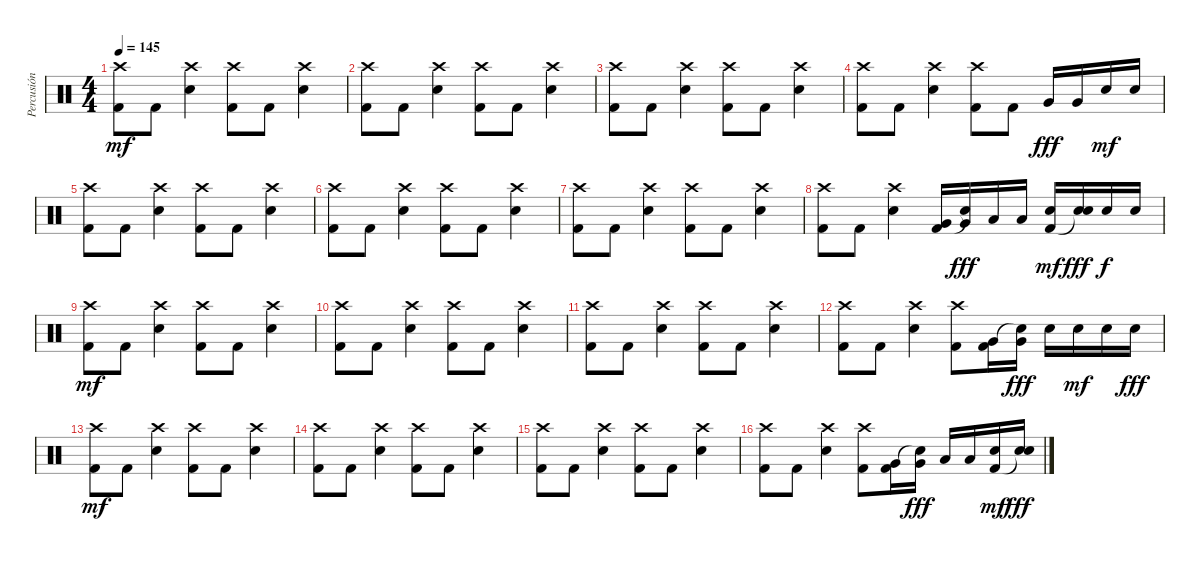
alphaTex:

\track ("Percusión" "Percusión") {instrument percussion}
\staff {score}
\articulation defaults
\ts (4 4)
\tempo 145
\clef neutral
\ks c
("Crash high (hit)" "Kick (hit) 2").8{dy mf} "Kick (hit) 2".8 ("Crash high (hit)" "Snare (hit) 2").4 ("Crash high (hit)" "Kick (hit) 2").8 "Kick (hit) 2".8 ("Crash high (hit)" "Snare (hit) 2").4 |
("Crash high (hit)" "Kick (hit) 2").8 "Kick (hit) 2".8 ("Crash high (hit)" "Snare (hit) 2").4 ("Crash high (hit)" "Kick (hit) 2").8 "Kick (hit) 2".8 ("Crash high (hit)" "Snare (hit) 2").4 |
("Crash high (hit)" "Kick (hit) 2").8 "Kick (hit) 2".8 ("Crash high (hit)" "Snare (hit) 2").4 ("Crash high (hit)" "Kick (hit) 2").8 "Kick (hit) 2".8 ("Crash high (hit)" "Snare (hit) 2").4 |
("Crash high (hit)" "Kick (hit) 2").8 "Kick (hit) 2".8 ("Crash high (hit)" "Snare (hit) 2").4 ("Crash high (hit)" "Kick (hit) 2").8 "Kick (hit) 2".8 "Very Low Tom (hit)".16{dy fff} "Very Low Tom (hit)".16 "Snare (hit) 2".16{dy mf} "Snare (hit) 2".16 |
("Crash high (hit)" "Kick (hit) 2").8 "Kick (hit) 2".8 ("Crash high (hit)" "Snare (hit) 2").4 ("Crash high (hit)" "Kick (hit) 2").8 "Kick (hit) 2".8 ("Crash high (hit)" "Snare (hit) 2").4 |
("Crash high (hit)" "Kick (hit) 2").8 "Kick (hit) 2".8 ("Crash high (hit)" "Snare (hit) 2").4 ("Crash high (hit)" "Kick (hit) 2").8 "Kick (hit) 2".8 ("Crash high (hit)" "Snare (hit) 2").4 |
("Crash high (hit)" "Kick (hit) 2").8 "Kick (hit) 2".8 ("Crash high (hit)" "Snare (hit) 2").4 ("Crash high (hit)" "Kick (hit) 2").8 "Kick (hit) 2".8 ("Crash high (hit)" "Snare (hit) 2").4 |
("Crash high (hit)" "Kick (hit) 2").8 "Kick (hit) 2".8 ("Crash high (hit)" "Snare (hit) 2").4 ("Very Low Tom (hit)" "Kick (hit) 2").16 ("Very Low Tom (hit)" "Snare (hit)"{t}).16{dy fff} "Low Tom (hit)".16 "Low Tom (hit)".16 ("Snare (hit) 2" "Kick (hit) 2").16{dy mf} ("Snare (hit) 2" "Snare (hit)"{t}).16{dy fff} "Snare (hit) 2".16{dy f} "Snare (hit) 2".16 |
("Crash high (hit)" "Kick (hit) 2").8{dy mf} "Kick (hit) 2".8 ("Crash high (hit)" "Snare (hit) 2").4 ("Crash high (hit)" "Kick (hit) 2").8 "Kick (hit) 2".8 ("Crash high (hit)" "Snare (hit) 2").4 |
("Crash high (hit)" "Kick (hit) 2").8 "Kick (hit) 2".8 ("Crash high (hit)" "Snare (hit) 2").4 ("Crash high (hit)" "Kick (hit) 2").8 "Kick (hit) 2".8 ("Crash high (hit)" "Snare (hit) 2").4 |
("Crash high (hit)" "Kick (hit) 2").8 "Kick (hit) 2".8 ("Crash high (hit)" "Snare (hit) 2").4 ("Crash high (hit)" "Kick (hit) 2").8 "Kick (hit) 2".8 ("Crash high (hit)" "Snare (hit) 2").4 |
("Crash high (hit)" "Kick (hit) 2").8 "Kick (hit) 2".8 ("Crash high (hit)" "Snare (hit) 2").4 ("Crash high (hit)" "Kick (hit) 2").8 ("Very Low Tom (hit)" "Kick (hit) 2").16 ("Very Low Tom (hit)" "Snare (hit)"{t}).16{dy fff} "Snare (hit) 2".16 "Snare (hit) 2".16{dy mf} "Snare (hit) 2".16 "Snare (hit) 2".16{dy fff} |
("Crash high (hit)" "Kick (hit) 2").8{dy mf} "Kick (hit) 2".8 ("Crash high (hit)" "Snare (hit) 2").4 ("Crash high (hit)" "Kick (hit) 2").8 "Kick (hit) 2".8 ("Crash high (hit)" "Snare (hit) 2").4 |
("Crash high (hit)" "Kick (hit) 2").8 "Kick (hit) 2".8 ("Crash high (hit)" "Snare (hit) 2").4 ("Crash high (hit)" "Kick (hit) 2").8 "Kick (hit) 2".8 ("Crash high (hit)" "Snare (hit) 2").4 |
("Crash high (hit)" "Kick (hit) 2").8 "Kick (hit) 2".8 ("Crash high (hit)" "Snare (hit) 2").4 ("Crash high (hit)" "Kick (hit) 2").8 "Kick (hit) 2".8 ("Crash high (hit)" "Snare (hit) 2").4 |
("Crash high (hit)" "Kick (hit) 2").8 "Kick (hit) 2".8 ("Crash high (hit)" "Snare (hit) 2").4 ("Crash high (hit)" "Kick (hit) 2").8 ("Very Low Tom (hit)" "Kick (hit) 2").16 ("Very Low Tom (hit)" "Snare (hit)"{t}).16{dy fff} "Low Tom (hit)".16 "Low Tom (hit)".16 ("Snare (hit) 2" "Kick (hit) 2").16{dy mf} ("Snare (hit) 2" "Snare (hit)"{t}).16{dy fff}
